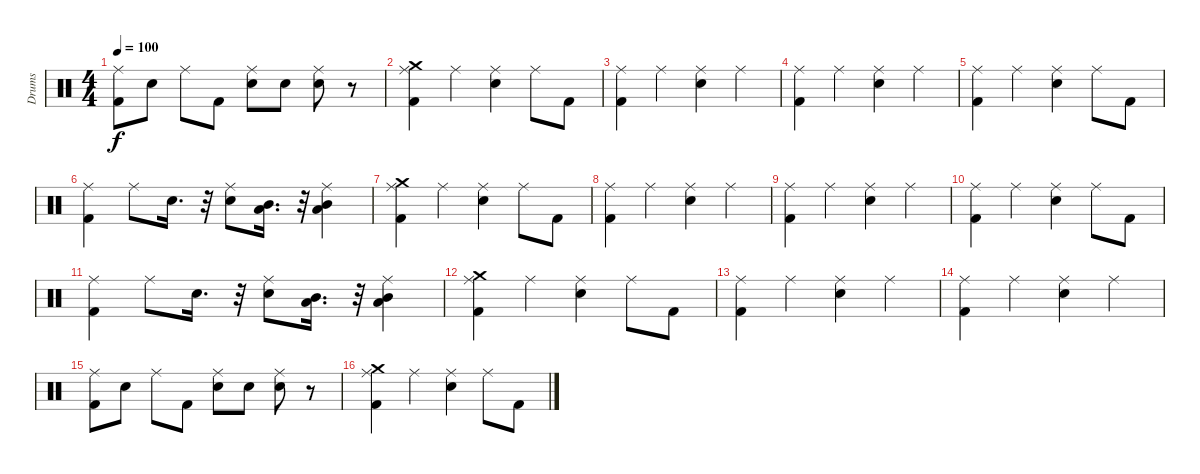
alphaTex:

\track ("Drums" "Drums") {instrument percussion}
\staff {score}
\articulation defaults
\ts (4 4)
\tempo 100
\clef neutral
\ks c
("Ride (middle)" "Kick (hit) 2").8{dy f} "Snare (hit) 2".8 "Ride (middle)".8 "Kick (hit) 2".8 ("Snare (hit) 2" "Ride (middle)").8 "Snare (hit) 2".8 ("Snare (hit) 2" "Ride (middle)").8 r.8 |
("Ride (middle)" "Kick (hit) 2" "Crash medium (hit)").4 "Ride (middle)".4 ("Snare (hit) 2" "Ride (middle)").4 "Ride (middle)".8 "Kick (hit) 2".8 |
("Ride (middle)" "Kick (hit) 2").4 "Ride (middle)".4 ("Ride (middle)" "Snare (hit) 2").4 "Ride (middle)".4 |
("Ride (middle)" "Kick (hit) 2").4 "Ride (middle)".4 ("Ride (middle)" "Snare (hit) 2").4 "Ride (middle)".4 |
("Ride (middle)" "Kick (hit) 2").4 "Ride (middle)".4 ("Snare (hit) 2" "Ride (middle)").4 "Ride (middle)".8 "Kick (hit) 2".8 |
("Ride (middle)" "Kick (hit) 2").4 "Ride (middle)".8 "Snare (hit) 2".16{d} r.32 ("Snare (hit) 2" "Ride (middle)").8 ("Mid Tom (hit)" "Low Tom (hit)").16{d} r.32 ("Low Tom (hit)" "Mid Tom (hit)" "Ride (middle)").4 |
("Ride (middle)" "Kick (hit) 2" "Crash medium (hit)").4 "Ride (middle)".4 ("Snare (hit) 2" "Ride (middle)").4 "Ride (middle)".8 "Kick (hit) 2".8 |
("Ride (middle)" "Kick (hit) 2").4 "Ride (middle)".4 ("Ride (middle)" "Snare (hit) 2").4 "Ride (middle)".4 |
("Ride (middle)" "Kick (hit) 2").4 "Ride (middle)".4 ("Ride (middle)" "Snare (hit) 2").4 "Ride (middle)".4 |
("Ride (middle)" "Kick (hit) 2").4 "Ride (middle)".4 ("Snare (hit) 2" "Ride (middle)").4 "Ride (middle)".8 "Kick (hit) 2".8 |
("Ride (middle)" "Kick (hit) 2").4 "Ride (middle)".8 "Snare (hit) 2".16{d} r.32 ("Snare (hit) 2" "Ride (middle)").8 ("Mid Tom (hit)" "Low Tom (hit)").16{d} r.32 ("Low Tom (hit)" "Mid Tom (hit)" "Ride (middle)").4 |
("Ride (middle)" "Kick (hit) 2" "Crash medium (hit)").4 "Ride (middle)".4 ("Snare (hit) 2" "Ride (middle)").4 "Ride (middle)".8 "Kick (hit) 2".8 |
("Ride (middle)" "Kick (hit) 2").4 "Ride (middle)".4 ("Ride (middle)" "Snare (hit) 2").4 "Ride (middle)".4 |
("Ride (middle)" "Kick (hit) 2").4 "Ride (middle)".4 ("Ride (middle)" "Snare (hit) 2").4 "Ride (middle)".4 |
("Ride (middle)" "Kick (hit) 2").8 "Snare (hit) 2".8 "Ride (middle)".8 "Kick (hit) 2".8 ("Snare (hit) 2" "Ride (middle)").8 "Snare (hit) 2".8 ("Snare (hit) 2" "Ride (middle)").8 r.8 |
("Ride (middle)" "Kick (hit) 2" "Crash medium (hit)").4 "Ride (middle)".4 ("Snare (hit) 2" "Ride (middle)").4 "Ride (middle)".8 "Kick (hit) 2".8
